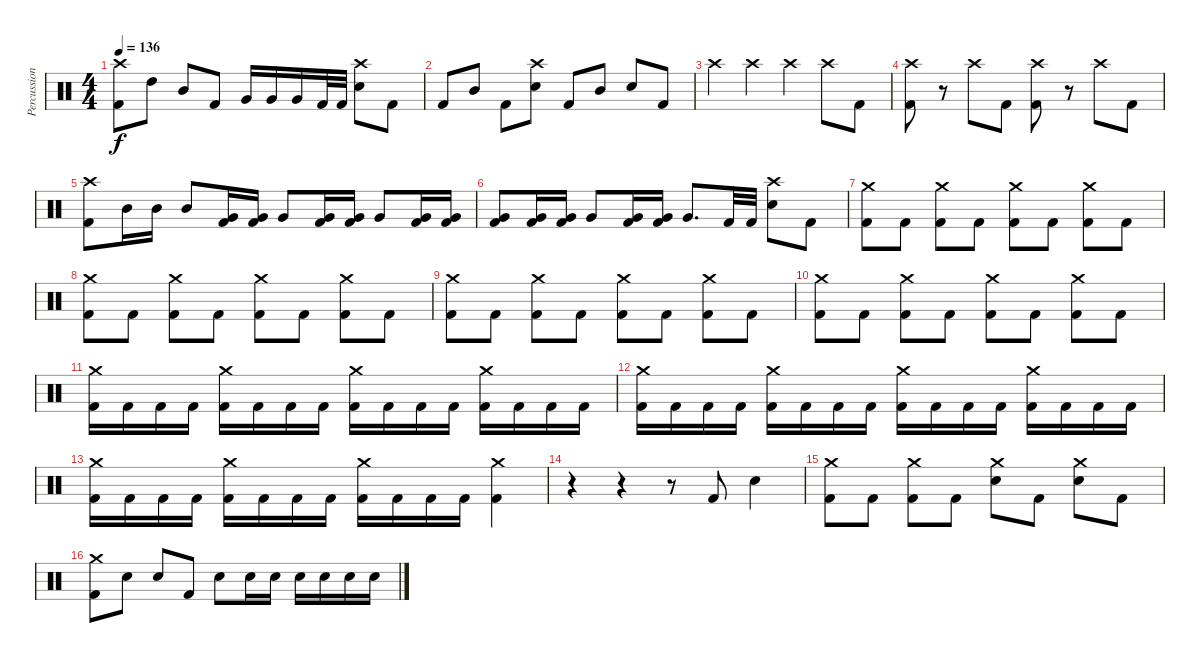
\track ("Percussion" "Percussion") {instrument percussion}
\staff {score}
\articulation defaults
\ts (4 4)
\tempo 136
\clef neutral
\ks c
("Crash high (hit)" "Kick (hit) 2").8{dy f} "High Tom (hit)".8 "Mid Tom (hit)".8 "Kick (hit) 2".8 "Very Low Tom (hit)".16 "Very Low Tom (hit)".16 "Very Low Tom (hit)".16 "Kick (hit) 2".32 "Kick (hit) 2".32 ("Crash high (hit)" "Electric Snare (hit)").8 "Kick (hit) 2".8 |
"Kick (hit) 2".8 "Mid Tom (hit)".8 "Kick (hit) 2".8 ("Crash high (hit)" "Electric Snare (hit)").8 "Kick (hit) 2".8 "Mid Tom (hit)".8 "Electric Snare (hit)".8 "Kick (hit) 2".8 |
"Crash high (hit)".4 "Crash high (hit)".4 "Crash high (hit)".4 "Crash high (hit)".8 "Kick (hit) 2".8 |
("Crash high (hit)" "Kick (hit) 2").8 r.8 "Crash high (hit)".8 "Kick (hit) 2".8 ("Crash high (hit)" "Kick (hit) 2").8 r.8 "Crash high (hit)".8 "Kick (hit) 2".8 |
("Crash high (hit)" "Kick (hit) 2").8 "Mid Tom (hit)".16 "Mid Tom (hit)".16 "Mid Tom (hit)".8 ("Very Low Tom (hit)" "Kick (hit) 2").16 ("Very Low Tom (hit)" "Kick (hit) 2").16 "Very Low Tom (hit)".8 ("Very Low Tom (hit)" "Kick (hit) 2").16 ("Very Low Tom (hit)" "Kick (hit) 2").16 "Very Low Tom (hit)".8 ("Very Low Tom (hit)" "Kick (hit) 2").16 ("Very Low Tom (hit)" "Kick (hit) 2").16 |
("Very Low Tom (hit)" "Kick (hit) 2").8 ("Very Low Tom (hit)" "Kick (hit) 2").16 ("Very Low Tom (hit)" "Kick (hit) 2").16 "Very Low Tom (hit)".8 ("Very Low Tom (hit)" "Kick (hit) 2").16 ("Very Low Tom (hit)" "Kick (hit) 2").16 "Very Low Tom (hit)".8{d} "Kick (hit) 2".32 "Kick (hit) 2".32 ("Crash high (hit)" "Electric Snare (hit)").8 "Kick (hit) 2".8 |
("Crash medium (hit)" "Kick (hit) 2").8 "Kick (hit) 2".8 ("Crash medium (hit)" "Kick (hit) 2").8 "Kick (hit) 2".8 ("Crash medium (hit)" "Kick (hit) 2").8 "Kick (hit) 2".8 ("Crash medium (hit)" "Kick (hit) 2").8 "Kick (hit) 2".8 |
("Crash medium (hit)" "Kick (hit) 2").8 "Kick (hit) 2".8 ("Crash medium (hit)" "Kick (hit) 2").8 "Kick (hit) 2".8 ("Crash medium (hit)" "Kick (hit) 2").8 "Kick (hit) 2".8 ("Crash medium (hit)" "Kick (hit) 2").8 "Kick (hit) 2".8 |
("Crash medium (hit)" "Kick (hit) 2").8 "Kick (hit) 2".8 ("Crash medium (hit)" "Kick (hit) 2").8 "Kick (hit) 2".8 ("Crash medium (hit)" "Kick (hit) 2").8 "Kick (hit) 2".8 ("Crash medium (hit)" "Kick (hit) 2").8 "Kick (hit) 2".8 |
("Crash medium (hit)" "Kick (hit) 2").8 "Kick (hit) 2".8 ("Crash medium (hit)" "Kick (hit) 2").8 "Kick (hit) 2".8 ("Crash medium (hit)" "Kick (hit) 2").8 "Kick (hit) 2".8 ("Crash medium (hit)" "Kick (hit) 2").8 "Kick (hit) 2".8 |
("Crash medium (hit)" "Kick (hit) 2").16 "Kick (hit) 2".16 "Kick (hit) 2".16 "Kick (hit) 2".16 ("Crash medium (hit)" "Kick (hit) 2").16 "Kick (hit) 2".16 "Kick (hit) 2".16 "Kick (hit) 2".16 ("Crash medium (hit)" "Kick (hit) 2").16 "Kick (hit) 2".16 "Kick (hit) 2".16 "Kick (hit) 2".16 ("Crash medium (hit)" "Kick (hit) 2").16 "Kick (hit) 2".16 "Kick (hit) 2".16 "Kick (hit) 2".16 |
("Crash medium (hit)" "Kick (hit) 2").16 "Kick (hit) 2".16 "Kick (hit) 2".16 "Kick (hit) 2".16 ("Crash medium (hit)" "Kick (hit) 2").16 "Kick (hit) 2".16 "Kick (hit) 2".16 "Kick (hit) 2".16 ("Crash medium (hit)" "Kick (hit) 2").16 "Kick (hit) 2".16 "Kick (hit) 2".16 "Kick (hit) 2".16 ("Crash medium (hit)" "Kick (hit) 2").16 "Kick (hit) 2".16 "Kick (hit) 2".16 "Kick (hit) 2".16 |
("Crash medium (hit)" "Kick (hit) 2").16 "Kick (hit) 2".16 "Kick (hit) 2".16 "Kick (hit) 2".16 ("Crash medium (hit)" "Kick (hit) 2").16 "Kick (hit) 2".16 "Kick (hit) 2".16 "Kick (hit) 2".16 ("Crash medium (hit)" "Kick (hit) 2").16 "Kick (hit) 2".16 "Kick (hit) 2".16 "Kick (hit) 2".16 ("Crash medium (hit)" "Kick (hit) 2").4 |
r.4 r.4 r.8 "Kick (hit) 2".8 "Electric Snare (hit)".4 |
("Crash medium (hit)" "Kick (hit) 2").8 "Kick (hit) 2".8 ("Crash medium (hit)" "Kick (hit) 2").8 "Kick (hit) 2".8 ("Crash medium (hit)" "Electric Snare (hit)").8 "Kick (hit) 2".8 ("Crash medium (hit)" "Electric Snare (hit)").8 "Kick (hit) 2".8 |
("Crash medium (hit)" "Kick (hit) 2").8 "Electric Snare (hit)".8 "Electric Snare (hit)".8 "Kick (hit) 2".8 "Electric Snare (hit)".8 "Electric Snare (hit)".16 "Electric Snare (hit)".16 "Electric Snare (hit)".16 "Electric Snare (hit)".16 "Electric Snare (hit)".16 "Electric Snare (hit)".16
